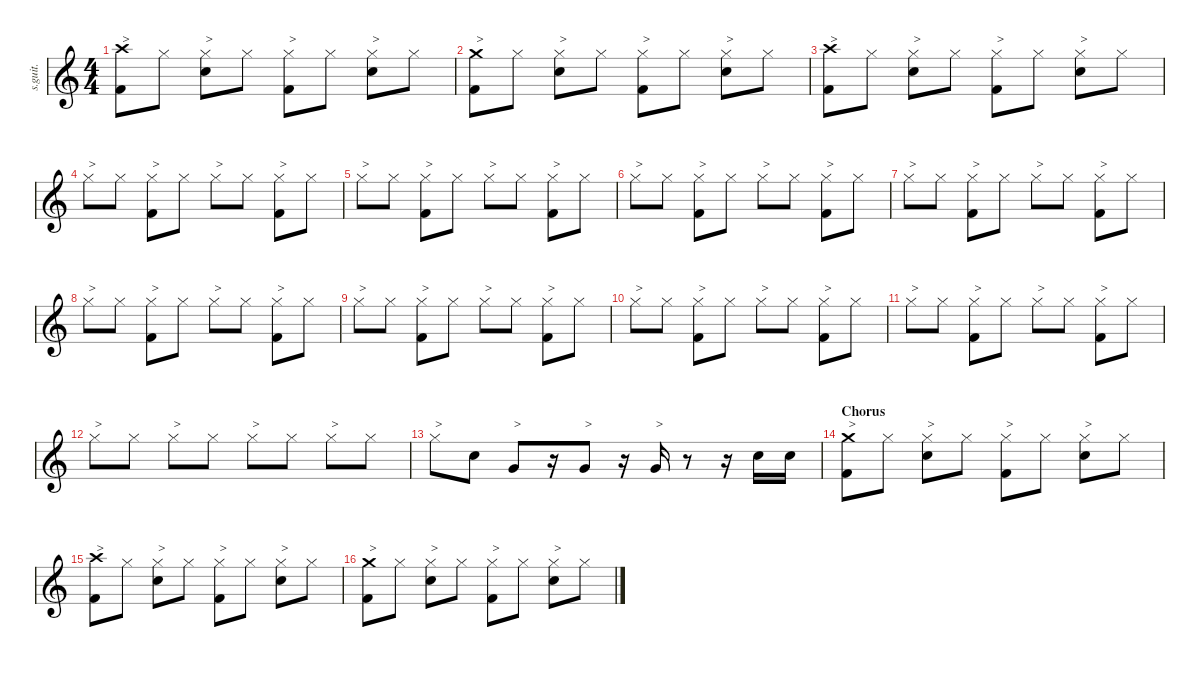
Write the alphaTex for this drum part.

\defaultSystemsLayout 4
\hideDynamics
\bracketExtendMode nobrackets
\track ("Chris Slade" "s.guit.") {instrument percussion}
\staff {score}
\articulation defaults
\ts (4 4)
\tempo (134 hide)
\clef g2
\ks c
("Crash high (hit)" "Kick (hit) 2").8{txt ">" lyrics (0 "") lyrics (1 "") lyrics (2 "") lyrics (3 "") lyrics (4 "") dy f} "Hi-Hat (closed)".8{lyrics (0 "") lyrics (1 "") lyrics (2 "") lyrics (3 "") lyrics (4 "")} ("Hi-Hat (closed)" "Snare (hit) 2").8{txt ">" lyrics (0 "") lyrics (1 "") lyrics (2 "") lyrics (3 "") lyrics (4 "")} "Hi-Hat (closed)".8{lyrics (0 "") lyrics (1 "") lyrics (2 "") lyrics (3 "") lyrics (4 "") dy mf} ("Hi-Hat (closed)" "Kick (hit) 2").8{txt ">" lyrics (0 "") lyrics (1 "") lyrics (2 "") lyrics (3 "") lyrics (4 "") dy ff} "Hi-Hat (closed)".8{lyrics (0 "") lyrics (1 "") lyrics (2 "") lyrics (3 "") lyrics (4 "") dy mf} ("Hi-Hat (closed)" "Snare (hit) 2").8{txt ">" lyrics (0 "") lyrics (1 "") lyrics (2 "") lyrics (3 "") lyrics (4 "") dy f} "Hi-Hat (closed)".8{lyrics (0 "") lyrics (1 "") lyrics (2 "") lyrics (3 "") lyrics (4 "") dy mf} |
("Crash medium (hit)" "Kick (hit) 2").8{txt ">" lyrics (0 "") lyrics (1 "") lyrics (2 "") lyrics (3 "") lyrics (4 "") dy ff} "Hi-Hat (closed)".8{lyrics (0 "") lyrics (1 "") lyrics (2 "") lyrics (3 "") lyrics (4 "") dy f} ("Hi-Hat (closed)" "Snare (hit) 2").8{txt ">" lyrics (0 "") lyrics (1 "") lyrics (2 "") lyrics (3 "") lyrics (4 "")} "Hi-Hat (closed)".8{lyrics (0 "") lyrics (1 "") lyrics (2 "") lyrics (3 "") lyrics (4 "") dy mf} ("Hi-Hat (closed)" "Kick (hit) 2").8{txt ">" lyrics (0 "") lyrics (1 "") lyrics (2 "") lyrics (3 "") lyrics (4 "") dy ff} "Hi-Hat (closed)".8{lyrics (0 "") lyrics (1 "") lyrics (2 "") lyrics (3 "") lyrics (4 "") dy mf} ("Hi-Hat (closed)" "Snare (hit) 2").8{txt ">" lyrics (0 "") lyrics (1 "") lyrics (2 "") lyrics (3 "") lyrics (4 "") dy f} "Hi-Hat (closed)".8{lyrics (0 "") lyrics (1 "") lyrics (2 "") lyrics (3 "") lyrics (4 "") dy mf} |
("Crash high (hit)" "Kick (hit) 2").8{txt ">" lyrics (0 "") lyrics (1 "") lyrics (2 "") lyrics (3 "") lyrics (4 "") dy f} "Hi-Hat (closed)".8{lyrics (0 "") lyrics (1 "") lyrics (2 "") lyrics (3 "") lyrics (4 "")} ("Hi-Hat (closed)" "Snare (hit) 2").8{txt ">" lyrics (0 "") lyrics (1 "") lyrics (2 "") lyrics (3 "") lyrics (4 "")} "Hi-Hat (closed)".8{lyrics (0 "") lyrics (1 "") lyrics (2 "") lyrics (3 "") lyrics (4 "") dy mf} ("Hi-Hat (closed)" "Kick (hit) 2").8{txt ">" lyrics (0 "") lyrics (1 "") lyrics (2 "") lyrics (3 "") lyrics (4 "") dy ff} "Hi-Hat (closed)".8{lyrics (0 "") lyrics (1 "") lyrics (2 "") lyrics (3 "") lyrics (4 "") dy mf} ("Hi-Hat (closed)" "Snare (hit) 2").8{txt ">" lyrics (0 "") lyrics (1 "") lyrics (2 "") lyrics (3 "") lyrics (4 "") dy f} "Hi-Hat (closed)".8{lyrics (0 "") lyrics (1 "") lyrics (2 "") lyrics (3 "") lyrics (4 "") dy mf} |
"Hi-Hat (closed)".8{txt ">" lyrics (0 "") lyrics (1 "") lyrics (2 "") lyrics (3 "") lyrics (4 "") dy ff} "Hi-Hat (closed)".8{lyrics (0 "") lyrics (1 "") lyrics (2 "") lyrics (3 "") lyrics (4 "") dy mf} ("Hi-Hat (closed)" "Kick (hit) 2").8{txt ">" lyrics (0 "") lyrics (1 "") lyrics (2 "") lyrics (3 "") lyrics (4 "") dy f} "Hi-Hat (closed)".8{lyrics (0 "") lyrics (1 "") lyrics (2 "") lyrics (3 "") lyrics (4 "") dy mf} "Hi-Hat (closed)".8{txt ">" lyrics (0 "") lyrics (1 "") lyrics (2 "") lyrics (3 "") lyrics (4 "") dy ff} "Hi-Hat (closed)".8{lyrics (0 "") lyrics (1 "") lyrics (2 "") lyrics (3 "") lyrics (4 "") dy mf} ("Hi-Hat (closed)" "Kick (hit) 2").8{txt ">" lyrics (0 "") lyrics (1 "") lyrics (2 "") lyrics (3 "") lyrics (4 "") dy f} "Hi-Hat (closed)".8{lyrics (0 "") lyrics (1 "") lyrics (2 "") lyrics (3 "") lyrics (4 "") dy mf} |
"Hi-Hat (closed)".8{txt ">" lyrics (0 "") lyrics (1 "") lyrics (2 "") lyrics (3 "") lyrics (4 "") dy ff} "Hi-Hat (closed)".8{lyrics (0 "") lyrics (1 "") lyrics (2 "") lyrics (3 "") lyrics (4 "") dy mf} ("Hi-Hat (closed)" "Kick (hit) 2").8{txt ">" lyrics (0 "") lyrics (1 "") lyrics (2 "") lyrics (3 "") lyrics (4 "") dy f} "Hi-Hat (closed)".8{lyrics (0 "") lyrics (1 "") lyrics (2 "") lyrics (3 "") lyrics (4 "") dy mf} "Hi-Hat (closed)".8{txt ">" lyrics (0 "") lyrics (1 "") lyrics (2 "") lyrics (3 "") lyrics (4 "") dy ff} "Hi-Hat (closed)".8{lyrics (0 "") lyrics (1 "") lyrics (2 "") lyrics (3 "") lyrics (4 "") dy mf} ("Hi-Hat (closed)" "Kick (hit) 2").8{txt ">" lyrics (0 "") lyrics (1 "") lyrics (2 "") lyrics (3 "") lyrics (4 "") dy f} "Hi-Hat (closed)".8{lyrics (0 "") lyrics (1 "") lyrics (2 "") lyrics (3 "") lyrics (4 "") dy mf} |
"Hi-Hat (closed)".8{txt ">" lyrics (0 "") lyrics (1 "") lyrics (2 "") lyrics (3 "") lyrics (4 "") dy ff} "Hi-Hat (closed)".8{lyrics (0 "") lyrics (1 "") lyrics (2 "") lyrics (3 "") lyrics (4 "") dy mf} ("Hi-Hat (closed)" "Kick (hit) 2").8{txt ">" lyrics (0 "") lyrics (1 "") lyrics (2 "") lyrics (3 "") lyrics (4 "") dy f} "Hi-Hat (closed)".8{lyrics (0 "") lyrics (1 "") lyrics (2 "") lyrics (3 "") lyrics (4 "") dy mf} "Hi-Hat (closed)".8{txt ">" lyrics (0 "") lyrics (1 "") lyrics (2 "") lyrics (3 "") lyrics (4 "") dy ff} "Hi-Hat (closed)".8{lyrics (0 "") lyrics (1 "") lyrics (2 "") lyrics (3 "") lyrics (4 "") dy mf} ("Hi-Hat (closed)" "Kick (hit) 2").8{txt ">" lyrics (0 "") lyrics (1 "") lyrics (2 "") lyrics (3 "") lyrics (4 "") dy f} "Hi-Hat (closed)".8{lyrics (0 "") lyrics (1 "") lyrics (2 "") lyrics (3 "") lyrics (4 "") dy mf} |
"Hi-Hat (closed)".8{txt ">" lyrics (0 "") lyrics (1 "") lyrics (2 "") lyrics (3 "") lyrics (4 "") dy ff} "Hi-Hat (closed)".8{lyrics (0 "") lyrics (1 "") lyrics (2 "") lyrics (3 "") lyrics (4 "") dy mf} ("Hi-Hat (closed)" "Kick (hit) 2").8{txt ">" lyrics (0 "") lyrics (1 "") lyrics (2 "") lyrics (3 "") lyrics (4 "") dy f} "Hi-Hat (closed)".8{lyrics (0 "") lyrics (1 "") lyrics (2 "") lyrics (3 "") lyrics (4 "") dy mf} "Hi-Hat (closed)".8{txt ">" lyrics (0 "") lyrics (1 "") lyrics (2 "") lyrics (3 "") lyrics (4 "") dy ff} "Hi-Hat (closed)".8{lyrics (0 "") lyrics (1 "") lyrics (2 "") lyrics (3 "") lyrics (4 "") dy mf} ("Hi-Hat (closed)" "Kick (hit) 2").8{txt ">" lyrics (0 "") lyrics (1 "") lyrics (2 "") lyrics (3 "") lyrics (4 "") dy f} "Hi-Hat (closed)".8{lyrics (0 "") lyrics (1 "") lyrics (2 "") lyrics (3 "") lyrics (4 "") dy mf} |
"Hi-Hat (closed)".8{txt ">" lyrics (0 "") lyrics (1 "") lyrics (2 "") lyrics (3 "") lyrics (4 "") dy ff} "Hi-Hat (closed)".8{lyrics (0 "") lyrics (1 "") lyrics (2 "") lyrics (3 "") lyrics (4 "") dy mf} ("Hi-Hat (closed)" "Kick (hit) 2").8{txt ">" lyrics (0 "") lyrics (1 "") lyrics (2 "") lyrics (3 "") lyrics (4 "") dy f} "Hi-Hat (closed)".8{lyrics (0 "") lyrics (1 "") lyrics (2 "") lyrics (3 "") lyrics (4 "") dy mf} "Hi-Hat (closed)".8{txt ">" lyrics (0 "") lyrics (1 "") lyrics (2 "") lyrics (3 "") lyrics (4 "") dy ff} "Hi-Hat (closed)".8{lyrics (0 "") lyrics (1 "") lyrics (2 "") lyrics (3 "") lyrics (4 "") dy mf} ("Hi-Hat (closed)" "Kick (hit) 2").8{txt ">" lyrics (0 "") lyrics (1 "") lyrics (2 "") lyrics (3 "") lyrics (4 "") dy f} "Hi-Hat (closed)".8{lyrics (0 "") lyrics (1 "") lyrics (2 "") lyrics (3 "") lyrics (4 "") dy mf} |
"Hi-Hat (closed)".8{txt ">" lyrics (0 "") lyrics (1 "") lyrics (2 "") lyrics (3 "") lyrics (4 "") dy ff} "Hi-Hat (closed)".8{lyrics (0 "") lyrics (1 "") lyrics (2 "") lyrics (3 "") lyrics (4 "") dy mf} ("Hi-Hat (closed)" "Kick (hit) 2").8{txt ">" lyrics (0 "") lyrics (1 "") lyrics (2 "") lyrics (3 "") lyrics (4 "") dy f} "Hi-Hat (closed)".8{lyrics (0 "") lyrics (1 "") lyrics (2 "") lyrics (3 "") lyrics (4 "") dy mf} "Hi-Hat (closed)".8{txt ">" lyrics (0 "") lyrics (1 "") lyrics (2 "") lyrics (3 "") lyrics (4 "") dy ff} "Hi-Hat (closed)".8{lyrics (0 "") lyrics (1 "") lyrics (2 "") lyrics (3 "") lyrics (4 "") dy mf} ("Hi-Hat (closed)" "Kick (hit) 2").8{txt ">" lyrics (0 "") lyrics (1 "") lyrics (2 "") lyrics (3 "") lyrics (4 "") dy f} "Hi-Hat (closed)".8{lyrics (0 "") lyrics (1 "") lyrics (2 "") lyrics (3 "") lyrics (4 "") dy mf} |
"Hi-Hat (closed)".8{txt ">" lyrics (0 "") lyrics (1 "") lyrics (2 "") lyrics (3 "") lyrics (4 "") dy ff} "Hi-Hat (closed)".8{lyrics (0 "") lyrics (1 "") lyrics (2 "") lyrics (3 "") lyrics (4 "") dy mf} ("Hi-Hat (closed)" "Kick (hit) 2").8{txt ">" lyrics (0 "") lyrics (1 "") lyrics (2 "") lyrics (3 "") lyrics (4 "") dy f} "Hi-Hat (closed)".8{lyrics (0 "") lyrics (1 "") lyrics (2 "") lyrics (3 "") lyrics (4 "") dy mf} "Hi-Hat (closed)".8{txt ">" lyrics (0 "") lyrics (1 "") lyrics (2 "") lyrics (3 "") lyrics (4 "") dy ff} "Hi-Hat (closed)".8{lyrics (0 "") lyrics (1 "") lyrics (2 "") lyrics (3 "") lyrics (4 "") dy mf} ("Hi-Hat (closed)" "Kick (hit) 2").8{txt ">" lyrics (0 "") lyrics (1 "") lyrics (2 "") lyrics (3 "") lyrics (4 "") dy f} "Hi-Hat (closed)".8{lyrics (0 "") lyrics (1 "") lyrics (2 "") lyrics (3 "") lyrics (4 "") dy mf} |
"Hi-Hat (closed)".8{txt ">" lyrics (0 "") lyrics (1 "") lyrics (2 "") lyrics (3 "") lyrics (4 "") dy ff} "Hi-Hat (closed)".8{lyrics (0 "") lyrics (1 "") lyrics (2 "") lyrics (3 "") lyrics (4 "") dy mf} ("Hi-Hat (closed)" "Kick (hit) 2").8{txt ">" lyrics (0 "") lyrics (1 "") lyrics (2 "") lyrics (3 "") lyrics (4 "") dy f} "Hi-Hat (closed)".8{lyrics (0 "") lyrics (1 "") lyrics (2 "") lyrics (3 "") lyrics (4 "") dy mf} "Hi-Hat (closed)".8{txt ">" lyrics (0 "") lyrics (1 "") lyrics (2 "") lyrics (3 "") lyrics (4 "") dy ff} "Hi-Hat (closed)".8{lyrics (0 "") lyrics (1 "") lyrics (2 "") lyrics (3 "") lyrics (4 "") dy mf} ("Hi-Hat (closed)" "Kick (hit) 2").8{txt ">" lyrics (0 "") lyrics (1 "") lyrics (2 "") lyrics (3 "") lyrics (4 "") dy f} "Hi-Hat (closed)".8{lyrics (0 "") lyrics (1 "") lyrics (2 "") lyrics (3 "") lyrics (4 "") dy mf} |
"Hi-Hat (closed)".8{txt ">" lyrics (0 "") lyrics (1 "") lyrics (2 "") lyrics (3 "") lyrics (4 "") dy ff} "Hi-Hat (closed)".8{lyrics (0 "") lyrics (1 "") lyrics (2 "") lyrics (3 "") lyrics (4 "") dy mf} "Hi-Hat (closed)".8{txt ">" lyrics (0 "") lyrics (1 "") lyrics (2 "") lyrics (3 "") lyrics (4 "") dy ff} "Hi-Hat (closed)".8{lyrics (0 "") lyrics (1 "") lyrics (2 "") lyrics (3 "") lyrics (4 "") dy mf} "Hi-Hat (closed)".8{txt ">" lyrics (0 "") lyrics (1 "") lyrics (2 "") lyrics (3 "") lyrics (4 "") dy ff} "Hi-Hat (closed)".8{lyrics (0 "") lyrics (1 "") lyrics (2 "") lyrics (3 "") lyrics (4 "") dy mf} "Hi-Hat (closed)".8{txt ">" lyrics (0 "") lyrics (1 "") lyrics (2 "") lyrics (3 "") lyrics (4 "") dy ff} "Hi-Hat (closed)".8{lyrics (0 "") lyrics (1 "") lyrics (2 "") lyrics (3 "") lyrics (4 "") dy mf} |
"Hi-Hat (closed)".8{txt ">" lyrics (0 "") lyrics (1 "") lyrics (2 "") lyrics (3 "") lyrics (4 "") dy ff} "Snare (hit) 2".8{lyrics (0 "") lyrics (1 "") lyrics (2 "") lyrics (3 "") lyrics (4 "") dy mf} "Very Low Tom (hit)".8{txt ">" lyrics (0 "") lyrics (1 "") lyrics (2 "") lyrics (3 "") lyrics (4 "") dy ff} r.16 "Very Low Tom (hit)".8{txt ">" lyrics (0 "") lyrics (1 "") lyrics (2 "") lyrics (3 "") lyrics (4 "")} r.16 "Very Low Tom (hit)".16{txt ">" lyrics (0 "") lyrics (1 "") lyrics (2 "") lyrics (3 "") lyrics (4 "")} r.8 r.16 "Snare (hit) 2".16{lyrics (0 "") lyrics (1 "") lyrics (2 "") lyrics (3 "") lyrics (4 "")} "Snare (hit) 2".16{lyrics (0 "") lyrics (1 "") lyrics (2 "") lyrics (3 "") lyrics (4 "")} |
\section ("" "Chorus")
("Crash medium (hit)" "Kick (hit) 2").8{txt ">" lyrics (0 "") lyrics (1 "") lyrics (2 "") lyrics (3 "") lyrics (4 "")} "Hi-Hat (closed)".8{lyrics (0 "") lyrics (1 "") lyrics (2 "") lyrics (3 "") lyrics (4 "") dy f} ("Hi-Hat (closed)" "Snare (hit) 2").8{txt ">" lyrics (0 "") lyrics (1 "") lyrics (2 "") lyrics (3 "") lyrics (4 "")} "Hi-Hat (closed)".8{lyrics (0 "") lyrics (1 "") lyrics (2 "") lyrics (3 "") lyrics (4 "") dy mf} ("Hi-Hat (closed)" "Kick (hit) 2").8{txt ">" lyrics (0 "") lyrics (1 "") lyrics (2 "") lyrics (3 "") lyrics (4 "") dy ff} "Hi-Hat (closed)".8{lyrics (0 "") lyrics (1 "") lyrics (2 "") lyrics (3 "") lyrics (4 "") dy mf} ("Hi-Hat (closed)" "Snare (hit) 2").8{txt ">" lyrics (0 "") lyrics (1 "") lyrics (2 "") lyrics (3 "") lyrics (4 "") dy f} "Hi-Hat (closed)".8{lyrics (0 "") lyrics (1 "") lyrics (2 "") lyrics (3 "") lyrics (4 "") dy mf} |
("Crash high (hit)" "Kick (hit) 2").8{txt ">" lyrics (0 "") lyrics (1 "") lyrics (2 "") lyrics (3 "") lyrics (4 "") dy f} "Hi-Hat (closed)".8{lyrics (0 "") lyrics (1 "") lyrics (2 "") lyrics (3 "") lyrics (4 "")} ("Hi-Hat (closed)" "Snare (hit) 2").8{txt ">" lyrics (0 "") lyrics (1 "") lyrics (2 "") lyrics (3 "") lyrics (4 "")} "Hi-Hat (closed)".8{lyrics (0 "") lyrics (1 "") lyrics (2 "") lyrics (3 "") lyrics (4 "") dy mf} ("Hi-Hat (closed)" "Kick (hit) 2").8{txt ">" lyrics (0 "") lyrics (1 "") lyrics (2 "") lyrics (3 "") lyrics (4 "") dy ff} "Hi-Hat (closed)".8{lyrics (0 "") lyrics (1 "") lyrics (2 "") lyrics (3 "") lyrics (4 "") dy mf} ("Hi-Hat (closed)" "Snare (hit) 2").8{txt ">" lyrics (0 "") lyrics (1 "") lyrics (2 "") lyrics (3 "") lyrics (4 "") dy f} "Hi-Hat (closed)".8{lyrics (0 "") lyrics (1 "") lyrics (2 "") lyrics (3 "") lyrics (4 "") dy mf} |
("Crash medium (hit)" "Kick (hit) 2").8{txt ">" lyrics (0 "") lyrics (1 "") lyrics (2 "") lyrics (3 "") lyrics (4 "") dy ff} "Hi-Hat (closed)".8{lyrics (0 "") lyrics (1 "") lyrics (2 "") lyrics (3 "") lyrics (4 "") dy f} ("Hi-Hat (closed)" "Snare (hit) 2").8{txt ">" lyrics (0 "") lyrics (1 "") lyrics (2 "") lyrics (3 "") lyrics (4 "")} "Hi-Hat (closed)".8{lyrics (0 "") lyrics (1 "") lyrics (2 "") lyrics (3 "") lyrics (4 "") dy mf} ("Hi-Hat (closed)" "Kick (hit) 2").8{txt ">" lyrics (0 "") lyrics (1 "") lyrics (2 "") lyrics (3 "") lyrics (4 "") dy ff} "Hi-Hat (closed)".8{lyrics (0 "") lyrics (1 "") lyrics (2 "") lyrics (3 "") lyrics (4 "") dy mf} ("Hi-Hat (closed)" "Snare (hit) 2").8{txt ">" lyrics (0 "") lyrics (1 "") lyrics (2 "") lyrics (3 "") lyrics (4 "") dy f} "Hi-Hat (closed)".8{lyrics (0 "") lyrics (1 "") lyrics (2 "") lyrics (3 "") lyrics (4 "") dy mf}
